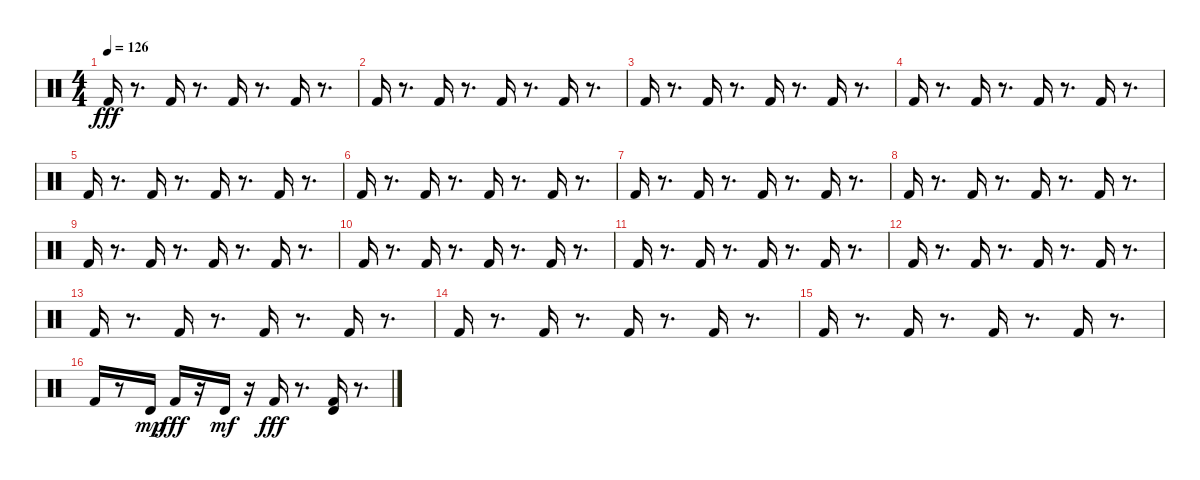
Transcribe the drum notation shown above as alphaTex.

\track "" {instrument percussion}
\staff {score}
\articulation defaults
\ts (4 4)
\tempo 126
\clef neutral
\ks c "Kick (hit) 2".16{dy fff}
r.8{d} "Kick (hit) 2".16 r.8{d} "Kick (hit) 2".16 r.8{d} "Kick (hit) 2".16 r.8{d} |
"Kick (hit) 2".16 r.8{d} "Kick (hit) 2".16 r.8{d} "Kick (hit) 2".16 r.8{d} "Kick (hit) 2".16 r.8{d} |
"Kick (hit) 2".16 r.8{d} "Kick (hit) 2".16 r.8{d} "Kick (hit) 2".16 r.8{d} "Kick (hit) 2".16 r.8{d} |
"Kick (hit) 2".16 r.8{d} "Kick (hit) 2".16 r.8{d} "Kick (hit) 2".16 r.8{d} "Kick (hit) 2".16 r.8{d} |
"Kick (hit) 2".16 r.8{d} "Kick (hit) 2".16 r.8{d} "Kick (hit) 2".16 r.8{d} "Kick (hit) 2".16 r.8{d} |
"Kick (hit) 2".16 r.8{d} "Kick (hit) 2".16 r.8{d} "Kick (hit) 2".16 r.8{d} "Kick (hit) 2".16 r.8{d} |
"Kick (hit) 2".16 r.8{d} "Kick (hit) 2".16 r.8{d} "Kick (hit) 2".16 r.8{d} "Kick (hit) 2".16 r.8{d} |
"Kick (hit) 2".16 r.8{d} "Kick (hit) 2".16 r.8{d} "Kick (hit) 2".16 r.8{d} "Kick (hit) 2".16 r.8{d} |
"Kick (hit) 2".16 r.8{d} "Kick (hit) 2".16 r.8{d} "Kick (hit) 2".16 r.8{d} "Kick (hit) 2".16 r.8{d} |
"Kick (hit) 2".16 r.8{d} "Kick (hit) 2".16 r.8{d} "Kick (hit) 2".16 r.8{d} "Kick (hit) 2".16 r.8{d} |
"Kick (hit) 2".16 r.8{d} "Kick (hit) 2".16 r.8{d} "Kick (hit) 2".16 r.8{d} "Kick (hit) 2".16 r.8{d} |
"Kick (hit) 2".16 r.8{d} "Kick (hit) 2".16 r.8{d} "Kick (hit) 2".16 r.8{d} "Kick (hit) 2".16 r.8{d} |
"Kick (hit) 2".16 r.8{d} "Kick (hit) 2".16 r.8{d} "Kick (hit) 2".16 r.8{d} "Kick (hit) 2".16 r.8{d} |
"Kick (hit) 2".16 r.8{d} "Kick (hit) 2".16 r.8{d} "Kick (hit) 2".16 r.8{d} "Kick (hit) 2".16 r.8{d} |
"Kick (hit) 2".16 r.8{d} "Kick (hit) 2".16 r.8{d} "Kick (hit) 2".16 r.8{d} "Kick (hit) 2".16 r.8{d} |
"Kick (hit) 2".16 r.8 "Timbale high (hit)".16{dy mp} "Kick (hit) 2".16{dy fff} r.16 "Timbale high (hit)".16{dy mf} r.16 "Kick (hit) 2".16{dy fff} r.8{d} ("Timbale high (hit)" "Kick (hit) 2").16 r.8{d}
